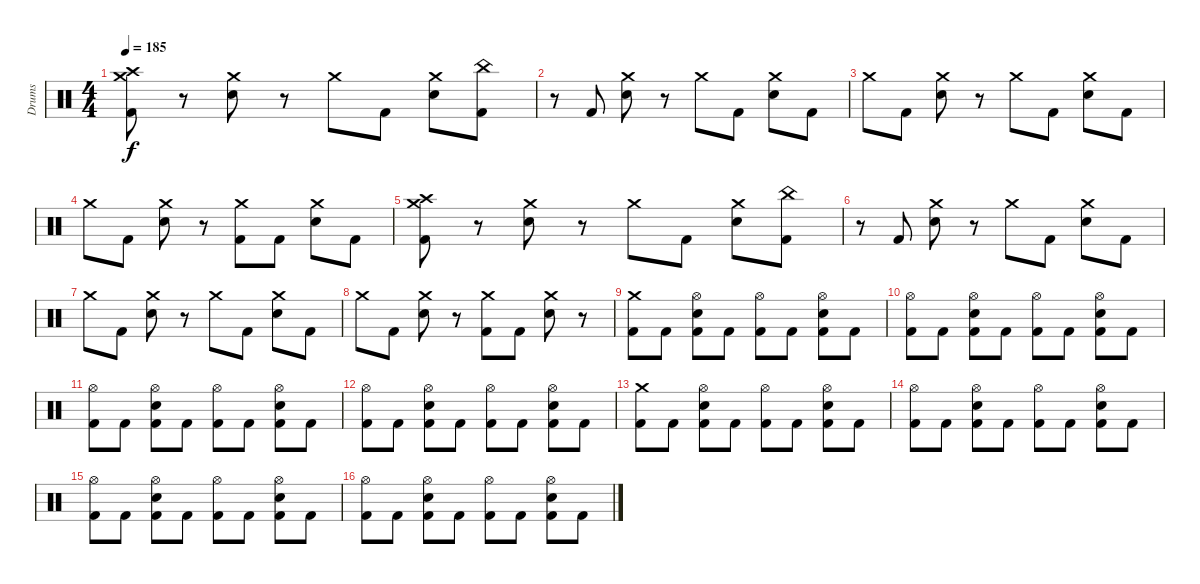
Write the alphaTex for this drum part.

\track ("Drums" "Drums") {instrument percussion}
\staff {score}
\articulation defaults
\ts (4 4)
\tempo 185
\clef neutral
\ks c
("Crash medium (hit)" "Crash high (hit)" "Kick (hit) 2").8{dy f} r.8 ("Crash medium (hit)" "Snare (hit) 2").8 r.8 "Crash medium (hit)".8 "Kick (hit) 2".8 ("Crash medium (hit)" "Snare (hit) 2").8 ("China (hit)" "Kick (hit) 2").8 |
r.8 "Kick (hit) 2".8 ("Crash medium (hit)" "Snare (hit) 2").8 r.8 "Crash medium (hit)".8 "Kick (hit) 2".8 ("Crash medium (hit)" "Snare (hit) 2").8 "Kick (hit) 2".8 |
"Crash medium (hit)".8 "Kick (hit) 2".8 ("Crash medium (hit)" "Snare (hit) 2").8 r.8 "Crash medium (hit)".8 "Kick (hit) 2".8 ("Crash medium (hit)" "Snare (hit) 2").8 "Kick (hit) 2".8 |
"Crash medium (hit)".8 "Kick (hit) 2".8 ("Crash medium (hit)" "Snare (hit) 2").8 r.8 ("Crash medium (hit)" "Kick (hit) 2").8 "Kick (hit) 2".8 ("Crash medium (hit)" "Snare (hit) 2").8 "Kick (hit) 2".8 |
("Crash medium (hit)" "Crash high (hit)" "Kick (hit) 2").8 r.8 ("Crash medium (hit)" "Snare (hit) 2").8 r.8 "Crash medium (hit)".8 "Kick (hit) 2".8 ("Crash medium (hit)" "Snare (hit) 2").8 ("China (hit)" "Kick (hit) 2").8 |
r.8 "Kick (hit) 2".8 ("Crash medium (hit)" "Snare (hit) 2").8 r.8 "Crash medium (hit)".8 "Kick (hit) 2".8 ("Crash medium (hit)" "Snare (hit) 2").8 "Kick (hit) 2".8 |
"Crash medium (hit)".8 "Kick (hit) 2".8 ("Crash medium (hit)" "Snare (hit) 2").8 r.8 "Crash medium (hit)".8 "Kick (hit) 2".8 ("Crash medium (hit)" "Snare (hit) 2").8 "Kick (hit) 2".8 |
"Crash medium (hit)".8 "Kick (hit) 2".8 ("Crash medium (hit)" "Snare (hit) 2").8 r.8 ("Crash medium (hit)" "Kick (hit) 2").8 "Kick (hit) 2".8 ("Crash medium (hit)" "Snare (hit) 2").8 r.8 |
("Crash medium (hit)" "Kick (hit) 2").8 "Kick (hit) 2".8 ("Snare (hit) 2" "Hi-Hat (open)" "Kick (hit) 2").8 "Kick (hit) 2".8 ("Hi-Hat (open)" "Kick (hit) 2").8 "Kick (hit) 2".8 ("Snare (hit) 2" "Hi-Hat (open)" "Kick (hit) 2").8 "Kick (hit) 2".8 |
("Hi-Hat (open)" "Kick (hit) 2").8 "Kick (hit) 2".8 ("Snare (hit) 2" "Hi-Hat (open)" "Kick (hit) 2").8 "Kick (hit) 2".8 ("Hi-Hat (open)" "Kick (hit) 2").8 "Kick (hit) 2".8 ("Snare (hit) 2" "Hi-Hat (open)" "Kick (hit) 2").8 "Kick (hit) 2".8 |
("Hi-Hat (open)" "Kick (hit) 2").8 "Kick (hit) 2".8 ("Snare (hit) 2" "Hi-Hat (open)" "Kick (hit) 2").8 "Kick (hit) 2".8 ("Hi-Hat (open)" "Kick (hit) 2").8 "Kick (hit) 2".8 ("Snare (hit) 2" "Hi-Hat (open)" "Kick (hit) 2").8 "Kick (hit) 2".8 |
("Hi-Hat (open)" "Kick (hit) 2").8 "Kick (hit) 2".8 ("Snare (hit) 2" "Hi-Hat (open)" "Kick (hit) 2").8 "Kick (hit) 2".8 ("Hi-Hat (open)" "Kick (hit) 2").8 "Kick (hit) 2".8 ("Snare (hit) 2" "Hi-Hat (open)" "Kick (hit) 2").8 "Kick (hit) 2".8 |
("Crash medium (hit)" "Kick (hit) 2").8 "Kick (hit) 2".8 ("Snare (hit) 2" "Hi-Hat (open)" "Kick (hit) 2").8 "Kick (hit) 2".8 ("Hi-Hat (open)" "Kick (hit) 2").8 "Kick (hit) 2".8 ("Snare (hit) 2" "Hi-Hat (open)" "Kick (hit) 2").8 "Kick (hit) 2".8 |
("Hi-Hat (open)" "Kick (hit) 2").8 "Kick (hit) 2".8 ("Snare (hit) 2" "Hi-Hat (open)" "Kick (hit) 2").8 "Kick (hit) 2".8 ("Hi-Hat (open)" "Kick (hit) 2").8 "Kick (hit) 2".8 ("Snare (hit) 2" "Hi-Hat (open)" "Kick (hit) 2").8 "Kick (hit) 2".8 |
("Hi-Hat (open)" "Kick (hit) 2").8 "Kick (hit) 2".8 ("Snare (hit) 2" "Hi-Hat (open)" "Kick (hit) 2").8 "Kick (hit) 2".8 ("Hi-Hat (open)" "Kick (hit) 2").8 "Kick (hit) 2".8 ("Snare (hit) 2" "Hi-Hat (open)" "Kick (hit) 2").8 "Kick (hit) 2".8 |
("Hi-Hat (open)" "Kick (hit) 2").8 "Kick (hit) 2".8 ("Snare (hit) 2" "Hi-Hat (open)" "Kick (hit) 2").8 "Kick (hit) 2".8 ("Hi-Hat (open)" "Kick (hit) 2").8 "Kick (hit) 2".8 ("Snare (hit) 2" "Hi-Hat (open)" "Kick (hit) 2").8 "Kick (hit) 2".8
